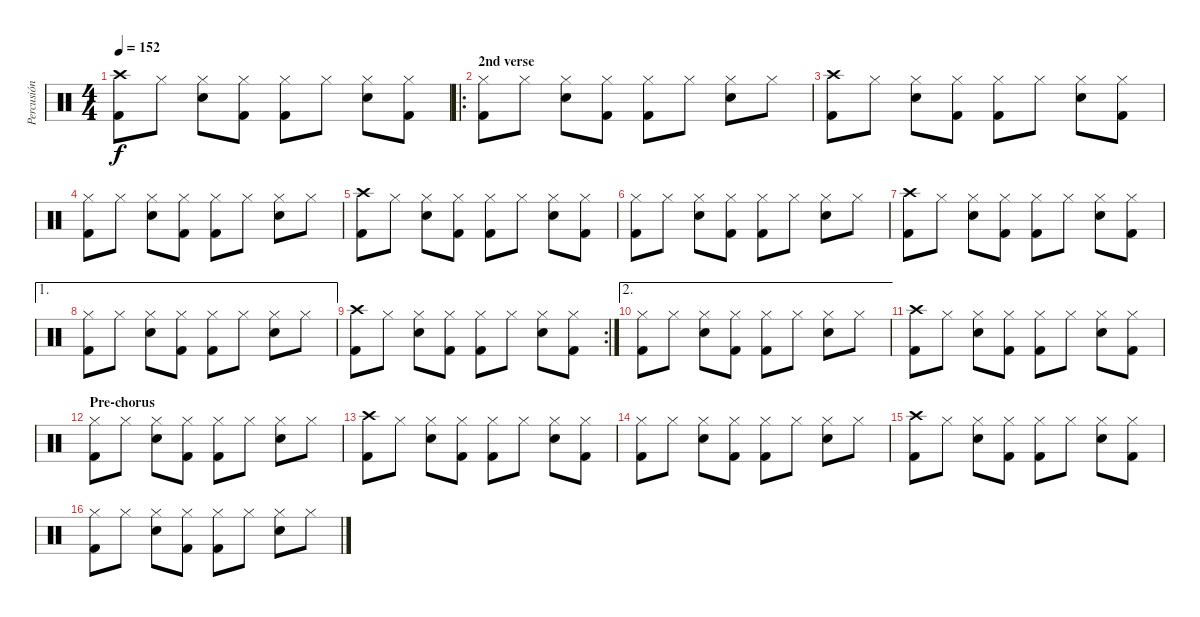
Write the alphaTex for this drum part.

\track ("Percusión" "Percusión") {instrument percussion}
\staff {score}
\articulation defaults
\ts (4 4)
\tempo 152
\clef neutral
\ks c
("Kick (hit) 2" "Crash high (hit)").8{dy f} "Hi-Hat (closed)".8 ("Hi-Hat (closed)" "Electric Snare (hit)").8 ("Kick (hit) 2" "Hi-Hat (closed)").8 ("Kick (hit) 2" "Hi-Hat (closed)").8 "Hi-Hat (closed)".8 ("Hi-Hat (closed)" "Electric Snare (hit)").8 ("Kick (hit) 2" "Hi-Hat (closed)").8 |
\ro
\section ("" "2nd verse")
("Kick (hit) 2" "Hi-Hat (closed)").8 "Hi-Hat (closed)".8 ("Hi-Hat (closed)" "Electric Snare (hit)").8 ("Kick (hit) 2" "Hi-Hat (closed)").8 ("Kick (hit) 2" "Hi-Hat (closed)").8 "Hi-Hat (closed)".8 ("Hi-Hat (closed)" "Electric Snare (hit)").8 "Hi-Hat (closed)".8 |
("Kick (hit) 2" "Crash high (hit)").8 "Hi-Hat (closed)".8 ("Hi-Hat (closed)" "Electric Snare (hit)").8 ("Kick (hit) 2" "Hi-Hat (closed)").8 ("Kick (hit) 2" "Hi-Hat (closed)").8 "Hi-Hat (closed)".8 ("Hi-Hat (closed)" "Electric Snare (hit)").8 ("Kick (hit) 2" "Hi-Hat (closed)").8 |
("Kick (hit) 2" "Hi-Hat (closed)").8 "Hi-Hat (closed)".8 ("Hi-Hat (closed)" "Electric Snare (hit)").8 ("Kick (hit) 2" "Hi-Hat (closed)").8 ("Kick (hit) 2" "Hi-Hat (closed)").8 "Hi-Hat (closed)".8 ("Hi-Hat (closed)" "Electric Snare (hit)").8 "Hi-Hat (closed)".8 |
("Kick (hit) 2" "Crash high (hit)").8 "Hi-Hat (closed)".8 ("Hi-Hat (closed)" "Electric Snare (hit)").8 ("Kick (hit) 2" "Hi-Hat (closed)").8 ("Kick (hit) 2" "Hi-Hat (closed)").8 "Hi-Hat (closed)".8 ("Hi-Hat (closed)" "Electric Snare (hit)").8 ("Kick (hit) 2" "Hi-Hat (closed)").8 |
("Kick (hit) 2" "Hi-Hat (closed)").8 "Hi-Hat (closed)".8 ("Hi-Hat (closed)" "Electric Snare (hit)").8 ("Kick (hit) 2" "Hi-Hat (closed)").8 ("Kick (hit) 2" "Hi-Hat (closed)").8 "Hi-Hat (closed)".8 ("Hi-Hat (closed)" "Electric Snare (hit)").8 "Hi-Hat (closed)".8 |
("Kick (hit) 2" "Crash high (hit)").8 "Hi-Hat (closed)".8 ("Hi-Hat (closed)" "Electric Snare (hit)").8 ("Kick (hit) 2" "Hi-Hat (closed)").8 ("Kick (hit) 2" "Hi-Hat (closed)").8 "Hi-Hat (closed)".8 ("Hi-Hat (closed)" "Electric Snare (hit)").8 ("Kick (hit) 2" "Hi-Hat (closed)").8 |
\ae 1
("Kick (hit) 2" "Hi-Hat (closed)").8 "Hi-Hat (closed)".8 ("Hi-Hat (closed)" "Electric Snare (hit)").8 ("Kick (hit) 2" "Hi-Hat (closed)").8 ("Kick (hit) 2" "Hi-Hat (closed)").8 "Hi-Hat (closed)".8 ("Hi-Hat (closed)" "Electric Snare (hit)").8 "Hi-Hat (closed)".8 |
\rc 2
("Kick (hit) 2" "Crash high (hit)").8 "Hi-Hat (closed)".8 ("Hi-Hat (closed)" "Electric Snare (hit)").8 ("Kick (hit) 2" "Hi-Hat (closed)").8 ("Kick (hit) 2" "Hi-Hat (closed)").8 "Hi-Hat (closed)".8 ("Hi-Hat (closed)" "Electric Snare (hit)").8 ("Kick (hit) 2" "Hi-Hat (closed)").8 |
\ae 2
("Kick (hit) 2" "Hi-Hat (closed)").8 "Hi-Hat (closed)".8 ("Hi-Hat (closed)" "Electric Snare (hit)").8 ("Kick (hit) 2" "Hi-Hat (closed)").8 ("Kick (hit) 2" "Hi-Hat (closed)").8 "Hi-Hat (closed)".8 ("Hi-Hat (closed)" "Electric Snare (hit)").8 "Hi-Hat (closed)".8 |
("Kick (hit) 2" "Crash high (hit)").8 "Hi-Hat (closed)".8 ("Hi-Hat (closed)" "Electric Snare (hit)").8 ("Kick (hit) 2" "Hi-Hat (closed)").8 ("Kick (hit) 2" "Hi-Hat (closed)").8 "Hi-Hat (closed)".8 ("Hi-Hat (closed)" "Electric Snare (hit)").8 ("Kick (hit) 2" "Hi-Hat (closed)").8 |
\section ("" "Pre-chorus")
("Kick (hit) 2" "Hi-Hat (closed)").8 "Hi-Hat (closed)".8 ("Hi-Hat (closed)" "Electric Snare (hit)").8 ("Kick (hit) 2" "Hi-Hat (closed)").8 ("Kick (hit) 2" "Hi-Hat (closed)").8 "Hi-Hat (closed)".8 ("Hi-Hat (closed)" "Electric Snare (hit)").8 "Hi-Hat (closed)".8 |
("Kick (hit) 2" "Crash high (hit)").8 "Hi-Hat (closed)".8 ("Hi-Hat (closed)" "Electric Snare (hit)").8 ("Kick (hit) 2" "Hi-Hat (closed)").8 ("Kick (hit) 2" "Hi-Hat (closed)").8 "Hi-Hat (closed)".8 ("Hi-Hat (closed)" "Electric Snare (hit)").8 ("Kick (hit) 2" "Hi-Hat (closed)").8 |
("Kick (hit) 2" "Hi-Hat (closed)").8 "Hi-Hat (closed)".8 ("Hi-Hat (closed)" "Electric Snare (hit)").8 ("Kick (hit) 2" "Hi-Hat (closed)").8 ("Kick (hit) 2" "Hi-Hat (closed)").8 "Hi-Hat (closed)".8 ("Hi-Hat (closed)" "Electric Snare (hit)").8 "Hi-Hat (closed)".8 |
("Kick (hit) 2" "Crash high (hit)").8 "Hi-Hat (closed)".8 ("Hi-Hat (closed)" "Electric Snare (hit)").8 ("Kick (hit) 2" "Hi-Hat (closed)").8 ("Kick (hit) 2" "Hi-Hat (closed)").8 "Hi-Hat (closed)".8 ("Hi-Hat (closed)" "Electric Snare (hit)").8 ("Kick (hit) 2" "Hi-Hat (closed)").8 |
("Kick (hit) 2" "Hi-Hat (closed)").8 "Hi-Hat (closed)".8 ("Hi-Hat (closed)" "Electric Snare (hit)").8 ("Kick (hit) 2" "Hi-Hat (closed)").8 ("Kick (hit) 2" "Hi-Hat (closed)").8 "Hi-Hat (closed)".8 ("Hi-Hat (closed)" "Electric Snare (hit)").8 "Hi-Hat (closed)".8
